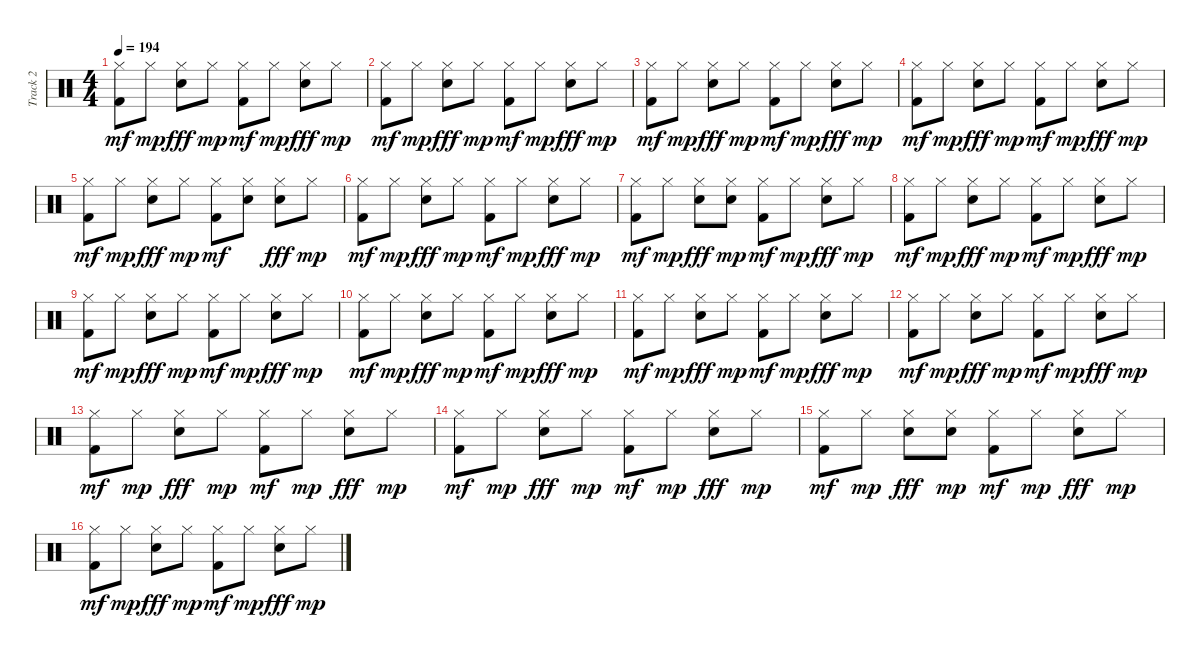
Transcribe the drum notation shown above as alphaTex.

\track ("Track 2" "Track 2") {instrument percussion}
\staff {score}
\articulation defaults
\ts (4 4)
\tempo 194
\clef neutral
\ks c
("Hi-Hat (closed)" "Kick (hit) 2").8{dy mf} "Hi-Hat (closed)".8{dy mp} ("Hi-Hat (closed)" "Snare (hit)").8{dy fff} "Hi-Hat (closed)".8{dy mp} ("Hi-Hat (closed)" "Kick (hit) 2").8{dy mf} "Hi-Hat (closed)".8{dy mp} ("Hi-Hat (closed)" "Snare (hit)").8{dy fff} "Hi-Hat (closed)".8{dy mp} |
("Hi-Hat (closed)" "Kick (hit) 2").8{dy mf} "Hi-Hat (closed)".8{dy mp} ("Hi-Hat (closed)" "Snare (hit)").8{dy fff} "Hi-Hat (closed)".8{dy mp} ("Hi-Hat (closed)" "Kick (hit) 2").8{dy mf} "Hi-Hat (closed)".8{dy mp} ("Hi-Hat (closed)" "Snare (hit)").8{dy fff} "Hi-Hat (closed)".8{dy mp} |
("Hi-Hat (closed)" "Kick (hit) 2").8{dy mf} "Hi-Hat (closed)".8{dy mp} ("Hi-Hat (closed)" "Snare (hit)").8{dy fff} "Hi-Hat (closed)".8{dy mp} ("Hi-Hat (closed)" "Kick (hit) 2").8{dy mf} "Hi-Hat (closed)".8{dy mp} ("Hi-Hat (closed)" "Snare (hit)").8{dy fff} "Hi-Hat (closed)".8{dy mp} |
("Hi-Hat (closed)" "Kick (hit) 2").8{dy mf} "Hi-Hat (closed)".8{dy mp} ("Hi-Hat (closed)" "Snare (hit)").8{dy fff} "Hi-Hat (closed)".8{dy mp} ("Hi-Hat (closed)" "Kick (hit) 2").8{dy mf} "Hi-Hat (closed)".8{dy mp} ("Hi-Hat (closed)" "Snare (hit)").8{dy fff} "Hi-Hat (closed)".8{dy mp} |
("Hi-Hat (closed)" "Kick (hit) 2").8{dy mf} "Hi-Hat (closed)".8{dy mp} ("Hi-Hat (closed)" "Snare (hit)").8{dy fff} "Hi-Hat (closed)".8{dy mp} ("Hi-Hat (closed)" "Kick (hit) 2").8{dy mf} ("Hi-Hat (closed)" "Snare (hit)").8 ("Hi-Hat (closed)" "Snare (hit)").8{dy fff} "Hi-Hat (closed)".8{dy mp} |
("Hi-Hat (closed)" "Kick (hit) 2").8{dy mf} "Hi-Hat (closed)".8{dy mp} ("Hi-Hat (closed)" "Snare (hit)").8{dy fff} "Hi-Hat (closed)".8{dy mp} ("Hi-Hat (closed)" "Kick (hit) 2").8{dy mf} "Hi-Hat (closed)".8{dy mp} ("Hi-Hat (closed)" "Snare (hit)").8{dy fff} "Hi-Hat (closed)".8{dy mp} |
("Hi-Hat (closed)" "Kick (hit) 2").8{dy mf} "Hi-Hat (closed)".8{dy mp} ("Hi-Hat (closed)" "Snare (hit)").8{dy fff} ("Hi-Hat (closed)" "Snare (hit)").8{dy mp} ("Hi-Hat (closed)" "Kick (hit) 2").8{dy mf} "Hi-Hat (closed)".8{dy mp} ("Hi-Hat (closed)" "Snare (hit)").8{dy fff} "Hi-Hat (closed)".8{dy mp} |
("Hi-Hat (closed)" "Kick (hit) 2").8{dy mf} "Hi-Hat (closed)".8{dy mp} ("Hi-Hat (closed)" "Snare (hit)").8{dy fff} "Hi-Hat (closed)".8{dy mp} ("Hi-Hat (closed)" "Kick (hit) 2").8{dy mf} "Hi-Hat (closed)".8{dy mp} ("Hi-Hat (closed)" "Snare (hit)").8{dy fff} "Hi-Hat (closed)".8{dy mp} |
("Hi-Hat (closed)" "Kick (hit) 2").8{dy mf} "Hi-Hat (closed)".8{dy mp} ("Hi-Hat (closed)" "Snare (hit)").8{dy fff} "Hi-Hat (closed)".8{dy mp} ("Hi-Hat (closed)" "Kick (hit) 2").8{dy mf} "Hi-Hat (closed)".8{dy mp} ("Hi-Hat (closed)" "Snare (hit)").8{dy fff} "Hi-Hat (closed)".8{dy mp} |
("Hi-Hat (closed)" "Kick (hit) 2").8{dy mf} "Hi-Hat (closed)".8{dy mp} ("Hi-Hat (closed)" "Snare (hit)").8{dy fff} "Hi-Hat (closed)".8{dy mp} ("Hi-Hat (closed)" "Kick (hit) 2").8{dy mf} "Hi-Hat (closed)".8{dy mp} ("Hi-Hat (closed)" "Snare (hit)").8{dy fff} "Hi-Hat (closed)".8{dy mp} |
("Hi-Hat (closed)" "Kick (hit) 2").8{dy mf} "Hi-Hat (closed)".8{dy mp} ("Hi-Hat (closed)" "Snare (hit)").8{dy fff} "Hi-Hat (closed)".8{dy mp} ("Hi-Hat (closed)" "Kick (hit) 2").8{dy mf} "Hi-Hat (closed)".8{dy mp} ("Hi-Hat (closed)" "Snare (hit)").8{dy fff} "Hi-Hat (closed)".8{dy mp} |
("Hi-Hat (closed)" "Kick (hit) 2").8{dy mf} "Hi-Hat (closed)".8{dy mp} ("Hi-Hat (closed)" "Snare (hit)").8{dy fff} "Hi-Hat (closed)".8{dy mp} ("Hi-Hat (closed)" "Kick (hit) 2").8{dy mf} "Hi-Hat (closed)".8{dy mp} ("Hi-Hat (closed)" "Snare (hit)").8{dy fff} "Hi-Hat (closed)".8{dy mp} |
("Hi-Hat (closed)" "Kick (hit) 2").8{dy mf} "Hi-Hat (closed)".8{dy mp} ("Hi-Hat (closed)" "Snare (hit)").8{dy fff} "Hi-Hat (closed)".8{dy mp} ("Hi-Hat (closed)" "Kick (hit) 2").8{dy mf} "Hi-Hat (closed)".8{dy mp} ("Hi-Hat (closed)" "Snare (hit)").8{dy fff} "Hi-Hat (closed)".8{dy mp} |
("Hi-Hat (closed)" "Kick (hit) 2").8{dy mf} "Hi-Hat (closed)".8{dy mp} ("Hi-Hat (closed)" "Snare (hit)").8{dy fff} "Hi-Hat (closed)".8{dy mp} ("Hi-Hat (closed)" "Kick (hit) 2").8{dy mf} "Hi-Hat (closed)".8{dy mp} ("Hi-Hat (closed)" "Snare (hit)").8{dy fff} "Hi-Hat (closed)".8{dy mp} |
("Hi-Hat (closed)" "Kick (hit) 2").8{dy mf} "Hi-Hat (closed)".8{dy mp} ("Hi-Hat (closed)" "Snare (hit)").8{dy fff} ("Hi-Hat (closed)" "Snare (hit)").8{dy mp} ("Hi-Hat (closed)" "Kick (hit) 2").8{dy mf} "Hi-Hat (closed)".8{dy mp} ("Hi-Hat (closed)" "Snare (hit)").8{dy fff} "Hi-Hat (closed)".8{dy mp} |
("Hi-Hat (closed)" "Kick (hit) 2").8{dy mf} "Hi-Hat (closed)".8{dy mp} ("Hi-Hat (closed)" "Snare (hit)").8{dy fff} "Hi-Hat (closed)".8{dy mp} ("Hi-Hat (closed)" "Kick (hit) 2").8{dy mf} "Hi-Hat (closed)".8{dy mp} ("Hi-Hat (closed)" "Snare (hit)").8{dy fff} "Hi-Hat (closed)".8{dy mp}
